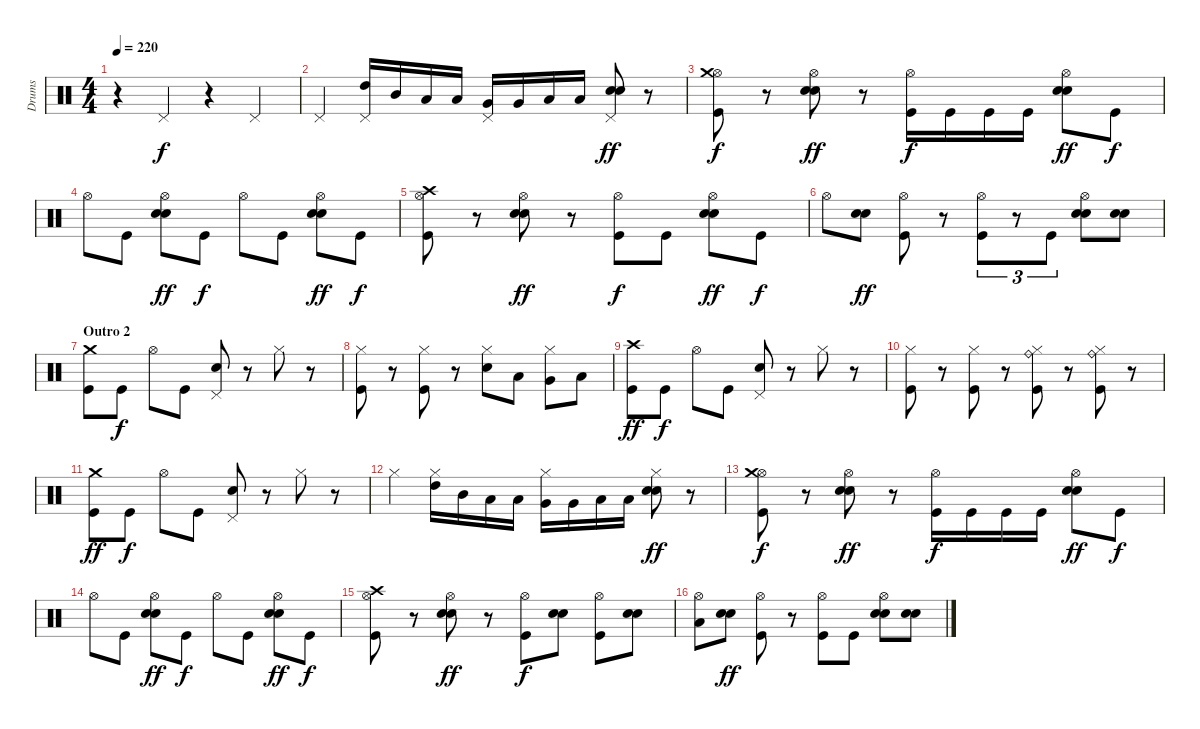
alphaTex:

\track ("Drums" "Drums") {instrument percussion}
\staff {score}
\articulation defaults
\ts (4 4)
\tempo 220
\clef neutral
\ks c
r.4{dy f} "Pedal Hi-Hat (hit)".4 r.4 "Pedal Hi-Hat (hit)".4 |
"Pedal Hi-Hat (hit)".4 ("High Tom (hit)" "Pedal Hi-Hat (hit)").16 "Mid Tom (hit)".16 "Low Tom (hit)".16 "Low Tom (hit)".16 ("Very Low Tom (hit)" "Pedal Hi-Hat (hit)").16 "Very Low Tom (hit)".16 "Low Floor Tom (hit)".16 "Low Floor Tom (hit)".16 ("Electric Snare (hit)" "Electric Snare (hit)" "Pedal Hi-Hat (hit)").8{dy ff} r.8 |
("Kick (hit)" "Hi-Hat (open)" "Crash medium (hit)").8{dy f} r.8 ("Electric Snare (hit)" "Electric Snare (hit)" "Hi-Hat (open)").8{dy ff} r.8 ("Kick (hit)" "Hi-Hat (open)").16{dy f} "Kick (hit)".16 "Kick (hit)".16 "Kick (hit)".16 ("Electric Snare (hit)" "Electric Snare (hit)" "Hi-Hat (open)").8{dy ff} "Kick (hit)".8{dy f} |
"Hi-Hat (open)".8 "Kick (hit)".8 ("Electric Snare (hit)" "Electric Snare (hit)" "Hi-Hat (open)").8{dy ff} "Kick (hit)".8{dy f} "Hi-Hat (open)".8 "Kick (hit)".8 ("Electric Snare (hit)" "Electric Snare (hit)" "Hi-Hat (open)").8{dy ff} "Kick (hit)".8{dy f} |
("Kick (hit)" "Hi-Hat (open)" "Crash high (hit)").8 r.8 ("Electric Snare (hit)" "Electric Snare (hit)" "Hi-Hat (open)").8{dy ff} r.8 ("Kick (hit)" "Hi-Hat (open)").8{dy f} "Kick (hit)".8 ("Electric Snare (hit)" "Electric Snare (hit)" "Hi-Hat (open)").8{dy ff} "Kick (hit)".8{dy f} |
"Hi-Hat (open)".8 ("Electric Snare (hit)" "Electric Snare (hit)").8{dy ff} ("Kick (hit)" "Hi-Hat (open)").8 r.8 ("Kick (hit)" "Hi-Hat (open)").8{tu (3 2)} r.8{tu (3 2)} "Kick (hit)".8{tu (3 2)} ("Electric Snare (hit)" "Electric Snare (hit)" "Hi-Hat (open)").8 ("Electric Snare (hit)" "Electric Snare (hit)").8 |
\section ("" "Outro 2")
("Kick (hit)" "Crash medium (hit)").8 "Kick (hit)".8{dy f} "Hi-Hat (open)".8 "Kick (hit)".8 ("Electric Snare (hit)" "Pedal Hi-Hat (hit)").8 r.8 "Hi-Hat (closed)".8 r.8 |
("Kick (hit)" "Hi-Hat (closed)").8 r.8 ("Kick (hit)" "Hi-Hat (closed)").8 r.8 ("Electric Snare (hit)" "Hi-Hat (closed)").8 "Low Tom (hit)".8 ("Very Low Tom (hit)" "Hi-Hat (closed)").8 "Low Floor Tom (hit)".8 |
("Kick (hit)" "Crash high (hit)").8{dy ff} "Kick (hit)".8{dy f} "Hi-Hat (open)".8 "Kick (hit)".8 ("Electric Snare (hit)" "Pedal Hi-Hat (hit)").8 r.8 "Hi-Hat (closed)".8 r.8 |
("Kick (hit)" "Hi-Hat (closed)").8 r.8 ("Kick (hit)" "Hi-Hat (closed)").8 r.8 ("Kick (hit)" "Ride (bell)" "Hi-Hat (closed)").8 r.8 ("Kick (hit)" "Ride (bell)" "Hi-Hat (closed)").8 r.8 |
("Kick (hit)" "Crash medium (hit)").8{dy ff} "Kick (hit)".8{dy f} "Hi-Hat (open)".8 "Kick (hit)".8 ("Electric Snare (hit)" "Pedal Hi-Hat (hit)").8 r.8 "Hi-Hat (closed)".8 r.8 |
"Hi-Hat (closed)".4 ("High Tom (hit)" "Hi-Hat (closed)").16 "Mid Tom (hit)".16 "Low Tom (hit)".16 "Low Tom (hit)".16 ("Very Low Tom (hit)" "Hi-Hat (closed)").16 "Very Low Tom (hit)".16 "Low Floor Tom (hit)".16 "Low Floor Tom (hit)".16 ("Electric Snare (hit)" "Electric Snare (hit)" "Hi-Hat (closed)").8{dy ff} r.8 |
("Kick (hit)" "Hi-Hat (open)" "Crash medium (hit)").8{dy f} r.8 ("Electric Snare (hit)" "Electric Snare (hit)" "Hi-Hat (open)").8{dy ff} r.8 ("Kick (hit)" "Hi-Hat (open)").16{dy f} "Kick (hit)".16 "Kick (hit)".16 "Kick (hit)".16 ("Electric Snare (hit)" "Electric Snare (hit)" "Hi-Hat (open)").8{dy ff} "Kick (hit)".8{dy f} |
"Hi-Hat (open)".8 "Kick (hit)".8 ("Electric Snare (hit)" "Electric Snare (hit)" "Hi-Hat (open)").8{dy ff} "Kick (hit)".8{dy f} "Hi-Hat (open)".8 "Kick (hit)".8 ("Electric Snare (hit)" "Electric Snare (hit)" "Hi-Hat (open)").8{dy ff} "Kick (hit)".8{dy f} |
("Kick (hit)" "Hi-Hat (open)" "Crash high (hit)").8 r.8 ("Electric Snare (hit)" "Electric Snare (hit)" "Hi-Hat (open)").8{dy ff} r.8 ("Kick (hit)" "Hi-Hat (open)").8{dy f} ("Electric Snare (hit)" "Electric Snare (hit)").8 ("Kick (hit)" "Hi-Hat (open)").8 ("Electric Snare (hit)" "Electric Snare (hit)").8 |
("Low Floor Tom (hit)" "Hi-Hat (open)").8 ("Electric Snare (hit)" "Electric Snare (hit)").8{dy ff} ("Kick (hit)" "Hi-Hat (open)").8 r.8 ("Kick (hit)" "Hi-Hat (open)").8 "Kick (hit)".8 ("Electric Snare (hit)" "Electric Snare (hit)" "Hi-Hat (open)").8 ("Electric Snare (hit)" "Electric Snare (hit)").8
